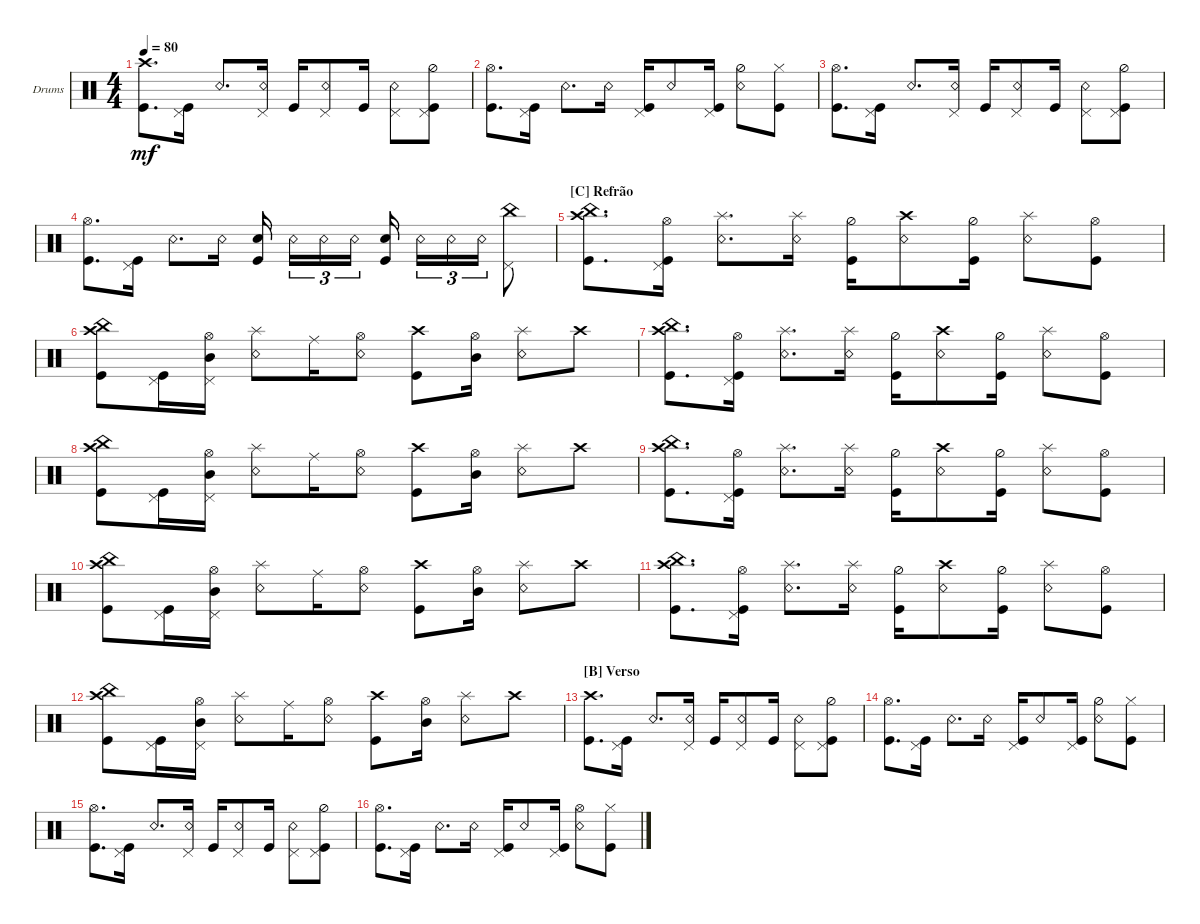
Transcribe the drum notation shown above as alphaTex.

\defaultSystemsLayout 4
\bracketExtendMode groupsimilarinstruments
\firstSystemTrackNameOrientation horizontal
\otherSystemsTrackNameOrientation horizontal
\track ("Bateria" "Drums") {multiBarRest instrument percussion}
\staff {score}
\articulation defaults
\ts (4 4)
\tempo 80
\clef neutral
\ks c
("Kick (hit)" "Crash high (hit)").8{d dy mf} ("Kick (hit)" "Pedal Hi-Hat (hit)").16 "Snare (rim shot)".8{d} ("Snare (rim shot)" "Pedal Hi-Hat (hit)").16 "Kick (hit)".16 ("Snare (rim shot)" "Pedal Hi-Hat (hit)").8 "Kick (hit)".16 ("Snare (rim shot)" "Pedal Hi-Hat (hit)").8 ("Kick (hit)" "Hi-Hat (half)" "Pedal Hi-Hat (hit)").8 |
("Kick (hit)" "Hi-Hat (open)").8{d} ("Kick (hit)" "Pedal Hi-Hat (hit)").16 "Snare (rim shot)".8{d} "Snare (rim shot)".16 ("Kick (hit)" "Pedal Hi-Hat (hit)").16 "Snare (rim shot)".8 ("Kick (hit)" "Pedal Hi-Hat (hit)").16 ("Snare (rim shot)" "Hi-Hat (half)").8 ("Kick (hit)" "Hi-Hat (closed)").8 |
("Kick (hit)" "Hi-Hat (open)").8{d} ("Kick (hit)" "Pedal Hi-Hat (hit)").16 "Snare (rim shot)".8{d} ("Snare (rim shot)" "Pedal Hi-Hat (hit)").16 "Kick (hit)".16 ("Snare (rim shot)" "Pedal Hi-Hat (hit)").8 "Kick (hit)".16 ("Snare (rim shot)" "Pedal Hi-Hat (hit)").8 ("Kick (hit)" "Hi-Hat (half)" "Pedal Hi-Hat (hit)").8 |
("Kick (hit)" "Hi-Hat (open)").8{d} ("Kick (hit)" "Pedal Hi-Hat (hit)").16 "Snare (rim shot)".8{d} "Snare (rim shot)".16 ("Kick (hit)" "Snare (hit) 2").16 "Snare (rim shot)".16{tu (3 2)} "Snare (rim shot)".16{tu (3 2)} "Snare (rim shot)".16{tu (3 2)} ("Kick (hit)" "Snare (hit) 2").16 "Snare (rim shot)".16{tu (3 2)} "Snare (rim shot)".16{tu (3 2)} "Snare (rim shot)".16{tu (3 2)} ("Pedal Hi-Hat (hit)" "China (hit)").8 |
\section ("C" "Refrão")
("Kick (hit)" "China (hit)" "Crash high (hit)").8{d} ("Kick (hit)" "Pedal Hi-Hat (hit)" "Hi-Hat (open)").16 ("Snare (rim shot)" "Splash (hit)").8{d} ("Snare (rim shot)" "Splash (hit)").16 ("Kick (hit)" "Hi-Hat (half)").16 ("Snare (rim shot)" "Crash high (hit)").8 ("Kick (hit)" "Hi-Hat (half)").16 ("Snare (rim shot)" "Splash (hit)").8 ("Kick (hit)" "Hi-Hat (open)").8 |
("Kick (hit)" "China (hit)" "Crash high (hit)").8 ("Kick (hit)" "Pedal Hi-Hat (hit)").16 ("Pedal Hi-Hat (hit)" "Mid Tom (hit)" "Hi-Hat (open)").16 ("Snare (rim shot)" "Splash (hit)").8 "Ride (middle)".16 ("Snare (rim shot)" "Hi-Hat (open)").8 ("Kick (hit)" "Crash high (hit)").8 ("Hi-Hat (open)" "Mid Tom (hit)").16 ("Snare (rim shot)" "Splash (hit)").8 "Crash high (hit)".8 |
("Kick (hit)" "China (hit)" "Crash high (hit)").8{d} ("Kick (hit)" "Pedal Hi-Hat (hit)" "Hi-Hat (open)").16 ("Snare (rim shot)" "Splash (hit)").8{d} ("Snare (rim shot)" "Splash (hit)").16 ("Kick (hit)" "Hi-Hat (half)").16 ("Snare (rim shot)" "Crash high (hit)").8 ("Kick (hit)" "Hi-Hat (half)").16 ("Snare (rim shot)" "Splash (hit)").8 ("Kick (hit)" "Hi-Hat (open)").8 |
("Kick (hit)" "China (hit)" "Crash high (hit)").8 ("Kick (hit)" "Pedal Hi-Hat (hit)").16 ("Pedal Hi-Hat (hit)" "Mid Tom (hit)" "Hi-Hat (open)").16 ("Snare (rim shot)" "Splash (hit)").8 "Ride (middle)".16 ("Snare (rim shot)" "Hi-Hat (open)").8 ("Kick (hit)" "Crash high (hit)").8 ("Hi-Hat (open)" "Mid Tom (hit)").16 ("Snare (rim shot)" "Splash (hit)").8 "Crash high (hit)".8 |
("Kick (hit)" "China (hit)" "Crash high (hit)").8{d} ("Kick (hit)" "Pedal Hi-Hat (hit)" "Hi-Hat (open)").16 ("Snare (rim shot)" "Splash (hit)").8{d} ("Snare (rim shot)" "Splash (hit)").16 ("Kick (hit)" "Hi-Hat (half)").16 ("Snare (rim shot)" "Crash high (hit)").8 ("Kick (hit)" "Hi-Hat (half)").16 ("Snare (rim shot)" "Splash (hit)").8 ("Kick (hit)" "Hi-Hat (open)").8 |
("Kick (hit)" "China (hit)" "Crash high (hit)").8 ("Kick (hit)" "Pedal Hi-Hat (hit)").16 ("Pedal Hi-Hat (hit)" "Mid Tom (hit)" "Hi-Hat (open)").16 ("Snare (rim shot)" "Splash (hit)").8 "Ride (middle)".16 ("Snare (rim shot)" "Hi-Hat (open)").8 ("Kick (hit)" "Crash high (hit)").8 ("Hi-Hat (open)" "Mid Tom (hit)").16 ("Snare (rim shot)" "Splash (hit)").8 "Crash high (hit)".8 |
("Kick (hit)" "China (hit)" "Crash high (hit)").8{d} ("Kick (hit)" "Pedal Hi-Hat (hit)" "Hi-Hat (open)").16 ("Snare (rim shot)" "Splash (hit)").8{d} ("Snare (rim shot)" "Splash (hit)").16 ("Kick (hit)" "Hi-Hat (half)").16 ("Snare (rim shot)" "Crash high (hit)").8 ("Kick (hit)" "Hi-Hat (half)").16 ("Snare (rim shot)" "Splash (hit)").8 ("Kick (hit)" "Hi-Hat (open)").8 |
("Kick (hit)" "China (hit)" "Crash high (hit)").8 ("Kick (hit)" "Pedal Hi-Hat (hit)").16 ("Pedal Hi-Hat (hit)" "Mid Tom (hit)" "Hi-Hat (open)").16 ("Snare (rim shot)" "Splash (hit)").8 "Ride (middle)".16 ("Snare (rim shot)" "Hi-Hat (open)").8 ("Kick (hit)" "Crash high (hit)").8 ("Hi-Hat (open)" "Mid Tom (hit)").16 ("Snare (rim shot)" "Splash (hit)").8 "Crash high (hit)".8 |
\section ("B" "Verso")
("Kick (hit)" "Crash high (hit)").8{d} ("Kick (hit)" "Pedal Hi-Hat (hit)").16 "Snare (rim shot)".8{d} ("Snare (rim shot)" "Pedal Hi-Hat (hit)").16 "Kick (hit)".16 ("Snare (rim shot)" "Pedal Hi-Hat (hit)").8 "Kick (hit)".16 ("Snare (rim shot)" "Pedal Hi-Hat (hit)").8 ("Kick (hit)" "Hi-Hat (half)" "Pedal Hi-Hat (hit)").8 |
("Kick (hit)" "Hi-Hat (open)").8{d} ("Kick (hit)" "Pedal Hi-Hat (hit)").16 "Snare (rim shot)".8{d} "Snare (rim shot)".16 ("Kick (hit)" "Pedal Hi-Hat (hit)").16 "Snare (rim shot)".8 ("Kick (hit)" "Pedal Hi-Hat (hit)").16 ("Snare (rim shot)" "Hi-Hat (half)").8 ("Kick (hit)" "Hi-Hat (closed)").8 |
("Kick (hit)" "Hi-Hat (open)").8{d} ("Kick (hit)" "Pedal Hi-Hat (hit)").16 "Snare (rim shot)".8{d} ("Snare (rim shot)" "Pedal Hi-Hat (hit)").16 "Kick (hit)".16 ("Snare (rim shot)" "Pedal Hi-Hat (hit)").8 "Kick (hit)".16 ("Snare (rim shot)" "Pedal Hi-Hat (hit)").8 ("Kick (hit)" "Hi-Hat (half)" "Pedal Hi-Hat (hit)").8 |
("Kick (hit)" "Hi-Hat (open)").8{d} ("Kick (hit)" "Pedal Hi-Hat (hit)").16 "Snare (rim shot)".8{d} "Snare (rim shot)".16 ("Kick (hit)" "Pedal Hi-Hat (hit)").16 "Snare (rim shot)".8 ("Kick (hit)" "Pedal Hi-Hat (hit)").16 ("Snare (rim shot)" "Hi-Hat (open)").8 ("Kick (hit)" "Hi-Hat (closed)").8
